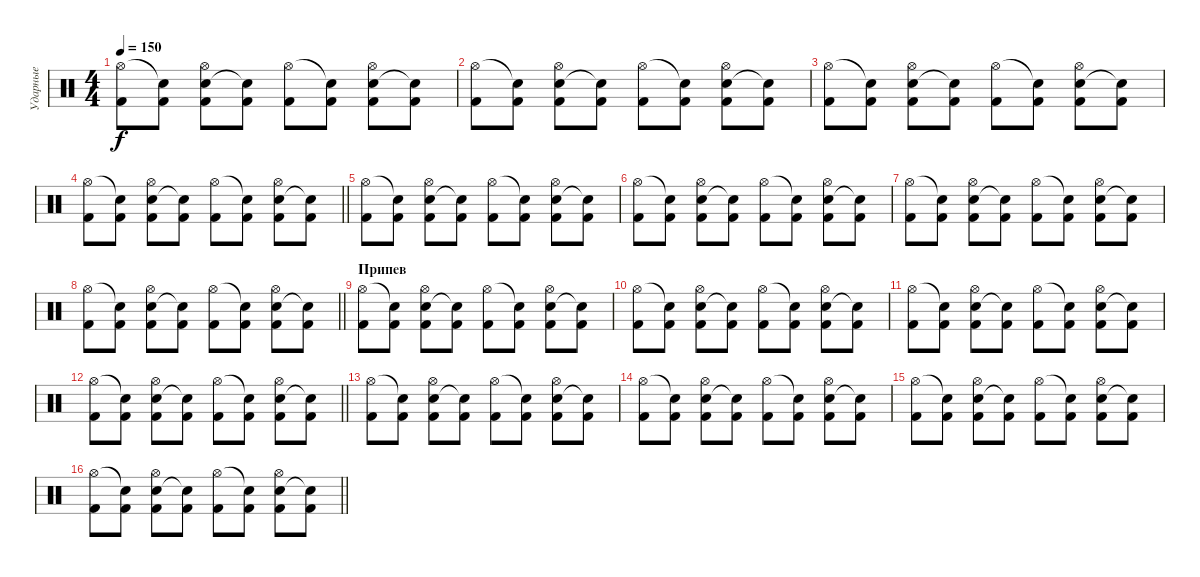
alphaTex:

\track ("Ударные" "Ударные") {instrument percussion}
\staff {score}
\articulation defaults
\ts (4 4)
\tempo 150
\clef neutral
\ks c
("Hi-Hat (open)" "Kick (hit) 2").8{dy f} ("Snare (hit)"{t} "Kick (hit) 2").8 ("Electric Snare (hit)" "Hi-Hat (open)" "Kick (hit) 2").8 ("Snare (hit)"{t} "Kick (hit) 2").8 ("Hi-Hat (open)" "Kick (hit) 2").8 ("Snare (hit)"{t} "Kick (hit) 2").8 ("Electric Snare (hit)" "Hi-Hat (open)" "Kick (hit) 2").8 ("Snare (hit)"{t} "Kick (hit) 2").8 |
("Hi-Hat (open)" "Kick (hit) 2").8 ("Snare (hit)"{t} "Kick (hit) 2").8 ("Electric Snare (hit)" "Hi-Hat (open)" "Kick (hit) 2").8 ("Snare (hit)"{t} "Kick (hit) 2").8 ("Hi-Hat (open)" "Kick (hit) 2").8 ("Snare (hit)"{t} "Kick (hit) 2").8 ("Electric Snare (hit)" "Hi-Hat (open)" "Kick (hit) 2").8 ("Snare (hit)"{t} "Kick (hit) 2").8 |
("Hi-Hat (open)" "Kick (hit) 2").8 ("Snare (hit)"{t} "Kick (hit) 2").8 ("Electric Snare (hit)" "Hi-Hat (open)" "Kick (hit) 2").8 ("Snare (hit)"{t} "Kick (hit) 2").8 ("Hi-Hat (open)" "Kick (hit) 2").8 ("Snare (hit)"{t} "Kick (hit) 2").8 ("Electric Snare (hit)" "Hi-Hat (open)" "Kick (hit) 2").8 ("Snare (hit)"{t} "Kick (hit) 2").8 |
\barLineRight lightlight
("Hi-Hat (open)" "Kick (hit) 2").8 ("Snare (hit)"{t} "Kick (hit) 2").8 ("Electric Snare (hit)" "Hi-Hat (open)" "Kick (hit) 2").8 ("Snare (hit)"{t} "Kick (hit) 2").8 ("Hi-Hat (open)" "Kick (hit) 2").8 ("Snare (hit)"{t} "Kick (hit) 2").8 ("Electric Snare (hit)" "Hi-Hat (open)" "Kick (hit) 2").8 ("Snare (hit)"{t} "Kick (hit) 2").8 |
("Hi-Hat (open)" "Kick (hit) 2").8 ("Snare (hit)"{t} "Kick (hit) 2").8 ("Electric Snare (hit)" "Hi-Hat (open)" "Kick (hit) 2").8 ("Snare (hit)"{t} "Kick (hit) 2").8 ("Hi-Hat (open)" "Kick (hit) 2").8 ("Snare (hit)"{t} "Kick (hit) 2").8 ("Electric Snare (hit)" "Hi-Hat (open)" "Kick (hit) 2").8 ("Snare (hit)"{t} "Kick (hit) 2").8 |
("Hi-Hat (open)" "Kick (hit) 2").8 ("Snare (hit)"{t} "Kick (hit) 2").8 ("Electric Snare (hit)" "Hi-Hat (open)" "Kick (hit) 2").8 ("Snare (hit)"{t} "Kick (hit) 2").8 ("Hi-Hat (open)" "Kick (hit) 2").8 ("Snare (hit)"{t} "Kick (hit) 2").8 ("Electric Snare (hit)" "Hi-Hat (open)" "Kick (hit) 2").8 ("Snare (hit)"{t} "Kick (hit) 2").8 |
("Hi-Hat (open)" "Kick (hit) 2").8 ("Snare (hit)"{t} "Kick (hit) 2").8 ("Electric Snare (hit)" "Hi-Hat (open)" "Kick (hit) 2").8 ("Snare (hit)"{t} "Kick (hit) 2").8 ("Hi-Hat (open)" "Kick (hit) 2").8 ("Snare (hit)"{t} "Kick (hit) 2").8 ("Electric Snare (hit)" "Hi-Hat (open)" "Kick (hit) 2").8 ("Snare (hit)"{t} "Kick (hit) 2").8 |
\barLineRight lightlight
("Hi-Hat (open)" "Kick (hit) 2").8 ("Snare (hit)"{t} "Kick (hit) 2").8 ("Electric Snare (hit)" "Hi-Hat (open)" "Kick (hit) 2").8 ("Snare (hit)"{t} "Kick (hit) 2").8 ("Hi-Hat (open)" "Kick (hit) 2").8 ("Snare (hit)"{t} "Kick (hit) 2").8 ("Electric Snare (hit)" "Hi-Hat (open)" "Kick (hit) 2").8 ("Snare (hit)"{t} "Kick (hit) 2").8 |
\section ("" "Припев")
("Hi-Hat (open)" "Kick (hit) 2").8 ("Snare (hit)"{t} "Kick (hit) 2").8 ("Electric Snare (hit)" "Hi-Hat (open)" "Kick (hit) 2").8 ("Snare (hit)"{t} "Kick (hit) 2").8 ("Hi-Hat (open)" "Kick (hit) 2").8 ("Snare (hit)"{t} "Kick (hit) 2").8 ("Electric Snare (hit)" "Hi-Hat (open)" "Kick (hit) 2").8 ("Snare (hit)"{t} "Kick (hit) 2").8 |
("Hi-Hat (open)" "Kick (hit) 2").8 ("Snare (hit)"{t} "Kick (hit) 2").8 ("Electric Snare (hit)" "Hi-Hat (open)" "Kick (hit) 2").8 ("Snare (hit)"{t} "Kick (hit) 2").8 ("Hi-Hat (open)" "Kick (hit) 2").8 ("Snare (hit)"{t} "Kick (hit) 2").8 ("Electric Snare (hit)" "Hi-Hat (open)" "Kick (hit) 2").8 ("Snare (hit)"{t} "Kick (hit) 2").8 |
("Hi-Hat (open)" "Kick (hit) 2").8 ("Snare (hit)"{t} "Kick (hit) 2").8 ("Electric Snare (hit)" "Hi-Hat (open)" "Kick (hit) 2").8 ("Snare (hit)"{t} "Kick (hit) 2").8 ("Hi-Hat (open)" "Kick (hit) 2").8 ("Snare (hit)"{t} "Kick (hit) 2").8 ("Electric Snare (hit)" "Hi-Hat (open)" "Kick (hit) 2").8 ("Snare (hit)"{t} "Kick (hit) 2").8 |
\barLineRight lightlight
("Hi-Hat (open)" "Kick (hit) 2").8 ("Snare (hit)"{t} "Kick (hit) 2").8 ("Electric Snare (hit)" "Hi-Hat (open)" "Kick (hit) 2").8 ("Snare (hit)"{t} "Kick (hit) 2").8 ("Hi-Hat (open)" "Kick (hit) 2").8 ("Snare (hit)"{t} "Kick (hit) 2").8 ("Electric Snare (hit)" "Hi-Hat (open)" "Kick (hit) 2").8 ("Snare (hit)"{t} "Kick (hit) 2").8 |
("Hi-Hat (open)" "Kick (hit) 2").8 ("Snare (hit)"{t} "Kick (hit) 2").8 ("Electric Snare (hit)" "Hi-Hat (open)" "Kick (hit) 2").8 ("Snare (hit)"{t} "Kick (hit) 2").8 ("Hi-Hat (open)" "Kick (hit) 2").8 ("Snare (hit)"{t} "Kick (hit) 2").8 ("Electric Snare (hit)" "Hi-Hat (open)" "Kick (hit) 2").8 ("Snare (hit)"{t} "Kick (hit) 2").8 |
("Hi-Hat (open)" "Kick (hit) 2").8 ("Snare (hit)"{t} "Kick (hit) 2").8 ("Electric Snare (hit)" "Hi-Hat (open)" "Kick (hit) 2").8 ("Snare (hit)"{t} "Kick (hit) 2").8 ("Hi-Hat (open)" "Kick (hit) 2").8 ("Snare (hit)"{t} "Kick (hit) 2").8 ("Electric Snare (hit)" "Hi-Hat (open)" "Kick (hit) 2").8 ("Snare (hit)"{t} "Kick (hit) 2").8 |
("Hi-Hat (open)" "Kick (hit) 2").8 ("Snare (hit)"{t} "Kick (hit) 2").8 ("Electric Snare (hit)" "Hi-Hat (open)" "Kick (hit) 2").8 ("Snare (hit)"{t} "Kick (hit) 2").8 ("Hi-Hat (open)" "Kick (hit) 2").8 ("Snare (hit)"{t} "Kick (hit) 2").8 ("Electric Snare (hit)" "Hi-Hat (open)" "Kick (hit) 2").8 ("Snare (hit)"{t} "Kick (hit) 2").8 |
\barLineRight lightlight
("Hi-Hat (open)" "Kick (hit) 2").8 ("Snare (hit)"{t} "Kick (hit) 2").8 ("Electric Snare (hit)" "Hi-Hat (open)" "Kick (hit) 2").8 ("Snare (hit)"{t} "Kick (hit) 2").8 ("Hi-Hat (open)" "Kick (hit) 2").8 ("Snare (hit)"{t} "Kick (hit) 2").8 ("Electric Snare (hit)" "Hi-Hat (open)" "Kick (hit) 2").8 ("Snare (hit)"{t} "Kick (hit) 2").8
